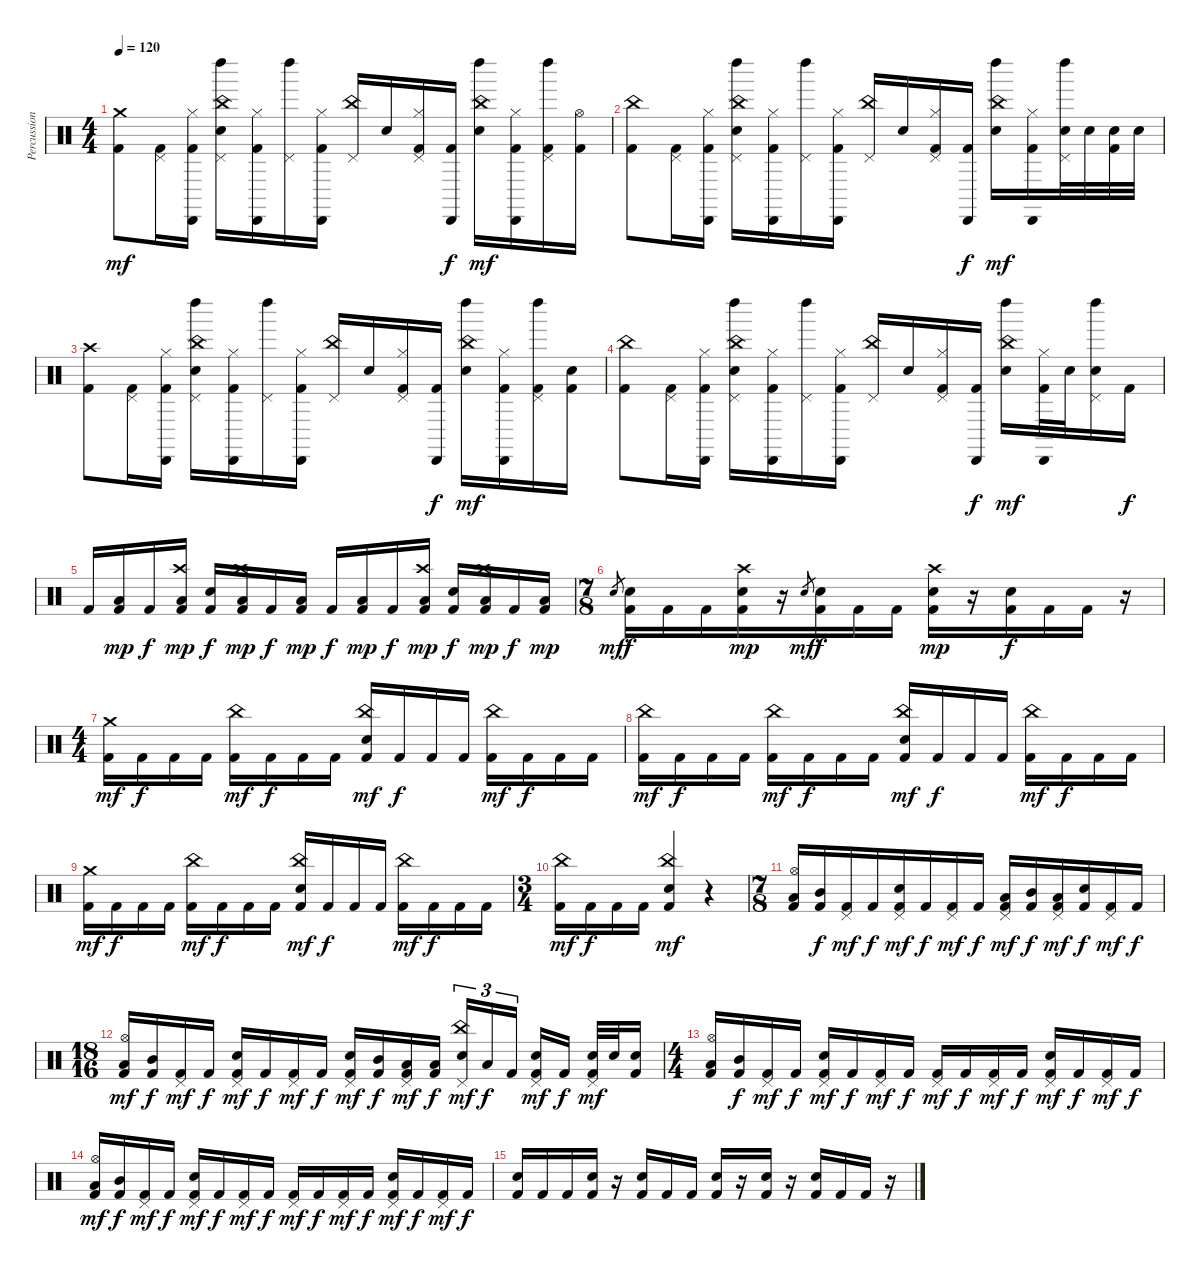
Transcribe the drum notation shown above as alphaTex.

\track ("Percussion" "Percussion") {instrument percussion}
\staff {score}
\articulation defaults
\ts (4 4)
\tempo 120
\clef neutral
\ks c
("Crash medium (hit)" "Kick (hit) 2").8{dy mf} ("Kick (hit) 2" "Pedal Hi-Hat (hit)").16 ("Cabasa (hit)" "Hi-Hat (closed)" "Kick (hit) 2").16 ("China (hit)" "Left Maraca (hit)" "Electric Snare (hit)" "Pedal Hi-Hat (hit)").16 ("Cabasa (hit)" "Hi-Hat (closed)" "Kick (hit) 2").16 ("Left Maraca (hit)" "Pedal Hi-Hat (hit)").16 ("Cabasa (hit)" "Hi-Hat (closed)" "Kick (hit) 2").16 ("China (hit)" "Pedal Hi-Hat (hit)").16 "Electric Snare (hit)".16 ("Hi-Hat (closed)" "Kick (hit) 2" "Pedal Hi-Hat (hit)").16 ("Cabasa (hit)" "Kick (hit) 2").16{dy f} ("China (hit)" "Left Maraca (hit)" "Electric Snare (hit)").16{dy mf} ("Cabasa (hit)" "Hi-Hat (closed)" "Kick (hit) 2").16 ("Left Maraca (hit)" "Kick (hit) 2" "Pedal Hi-Hat (hit)").16 ("Hi-Hat (open)" "Kick (hit) 2").16 |
("China (hit)" "Kick (hit) 2").8 ("Kick (hit) 2" "Pedal Hi-Hat (hit)").16 ("Cabasa (hit)" "Hi-Hat (closed)" "Kick (hit) 2").16 ("China (hit)" "Left Maraca (hit)" "Electric Snare (hit)" "Pedal Hi-Hat (hit)").16 ("Cabasa (hit)" "Hi-Hat (closed)" "Kick (hit) 2").16 ("Left Maraca (hit)" "Pedal Hi-Hat (hit)").16 ("Cabasa (hit)" "Hi-Hat (closed)" "Kick (hit) 2").16 ("China (hit)" "Pedal Hi-Hat (hit)").16 "Electric Snare (hit)".16 ("Hi-Hat (closed)" "Kick (hit) 2" "Pedal Hi-Hat (hit)").16 ("Cabasa (hit)" "Kick (hit) 2").16{dy f} ("China (hit)" "Left Maraca (hit)" "Electric Snare (hit)").16{dy mf} ("Cabasa (hit)" "Hi-Hat (closed)" "Kick (hit) 2").16 ("Left Maraca (hit)" "Electric Snare (hit)" "Pedal Hi-Hat (hit)").32 "Electric Snare (hit)".32 ("Electric Snare (hit)" "Kick (hit) 2").32 "Electric Snare (hit)".32 |
("Crash high (hit)" "Kick (hit) 2").8 ("Kick (hit) 2" "Pedal Hi-Hat (hit)").16 ("Cabasa (hit)" "Hi-Hat (closed)" "Kick (hit) 2").16 ("China (hit)" "Left Maraca (hit)" "Electric Snare (hit)" "Pedal Hi-Hat (hit)").16 ("Cabasa (hit)" "Hi-Hat (closed)" "Kick (hit) 2").16 ("Left Maraca (hit)" "Pedal Hi-Hat (hit)").16 ("Cabasa (hit)" "Hi-Hat (closed)" "Kick (hit) 2").16 ("China (hit)" "Pedal Hi-Hat (hit)").16 "Electric Snare (hit)".16 ("Hi-Hat (closed)" "Kick (hit) 2" "Pedal Hi-Hat (hit)").16 ("Cabasa (hit)" "Kick (hit) 2").16{dy f} ("China (hit)" "Left Maraca (hit)" "Electric Snare (hit)").16{dy mf} ("Cabasa (hit)" "Hi-Hat (closed)" "Kick (hit) 2").16 ("Left Maraca (hit)" "Kick (hit) 2" "Pedal Hi-Hat (hit)").16 ("Electric Snare (hit)" "Kick (hit) 2").16 |
("China (hit)" "Kick (hit) 2").8 ("Kick (hit) 2" "Pedal Hi-Hat (hit)").16 ("Cabasa (hit)" "Hi-Hat (closed)" "Kick (hit) 2").16 ("China (hit)" "Left Maraca (hit)" "Electric Snare (hit)" "Pedal Hi-Hat (hit)").16 ("Cabasa (hit)" "Hi-Hat (closed)" "Kick (hit) 2").16 ("Left Maraca (hit)" "Pedal Hi-Hat (hit)").16 ("Cabasa (hit)" "Hi-Hat (closed)" "Kick (hit) 2").16 ("China (hit)" "Pedal Hi-Hat (hit)").16 "Electric Snare (hit)".16 ("Hi-Hat (closed)" "Kick (hit) 2" "Pedal Hi-Hat (hit)").16 ("Cabasa (hit)" "Kick (hit) 2").16{dy f} ("China (hit)" "Left Maraca (hit)" "Electric Snare (hit)").16{dy mf} ("Cabasa (hit)" "Hi-Hat (closed)" "Kick (hit) 2").32 "Electric Snare (hit)".32 ("Left Maraca (hit)" "Electric Snare (hit)" "Pedal Hi-Hat (hit)").16 "Kick (hit) 2".16{dy f} |
"Kick (hit) 2".16 ("Low Floor Tom (hit)" "Kick (hit) 2").16{dy mp} "Kick (hit) 2".16{dy f} ("Crash high (hit)" "Low Floor Tom (hit)" "Kick (hit) 2").16{dy mp} ("Electric Snare (hit)" "Kick (hit) 2").16{dy f} ("Crash high (hit)" "Low Floor Tom (hit)" "Kick (hit) 2").16{dy mp} "Kick (hit) 2".16{dy f} ("Low Floor Tom (hit)" "Kick (hit) 2").16{dy mp} "Kick (hit) 2".16{dy f} ("Low Floor Tom (hit)" "Kick (hit) 2").16{dy mp} "Kick (hit) 2".16{dy f} ("Crash high (hit)" "Low Floor Tom (hit)" "Kick (hit) 2").16{dy mp} ("Electric Snare (hit)" "Kick (hit) 2").16{dy f} ("Crash high (hit)" "Low Floor Tom (hit)" "Kick (hit) 2").16{dy mp} "Kick (hit) 2".16{dy f} ("Low Floor Tom (hit)" "Kick (hit) 2").16{dy mp} |
\ts (7 8)
"Electric Snare (hit)".8{gr dy mf} ("Electric Snare (hit)" "Kick (hit) 2").16{dy f} "Kick (hit) 2".16 "Kick (hit) 2".16 ("Crash high (hit)" "Electric Snare (hit)" "Kick (hit) 2").16{dy mp} r.16 "Electric Snare (hit)".8{gr dy mf} ("Electric Snare (hit)" "Kick (hit) 2").16{dy f} "Kick (hit) 2".16 "Kick (hit) 2".16 ("Crash high (hit)" "Electric Snare (hit)" "Kick (hit) 2").16{dy mp} r.16 ("Electric Snare (hit)" "Kick (hit) 2").16{dy f} "Kick (hit) 2".16 "Kick (hit) 2".16 r.16 |
\ts (4 4)
("Crash medium (hit)" "Kick (hit) 2").16{dy mf} "Kick (hit) 2".16{dy f} "Kick (hit) 2".16 "Kick (hit) 2".16 ("China (hit)" "Kick (hit) 2").16{dy mf} "Kick (hit) 2".16{dy f} "Kick (hit) 2".16 "Kick (hit) 2".16 ("China (hit)" "Electric Snare (hit)" "Kick (hit) 2").16{dy mf} "Kick (hit) 2".16{dy f} "Kick (hit) 2".16 "Kick (hit) 2".16 ("China (hit)" "Kick (hit) 2").16{dy mf} "Kick (hit) 2".16{dy f} "Kick (hit) 2".16 "Kick (hit) 2".16 |
("China (hit)" "Kick (hit) 2").16{dy mf} "Kick (hit) 2".16{dy f} "Kick (hit) 2".16 "Kick (hit) 2".16 ("China (hit)" "Kick (hit) 2").16{dy mf} "Kick (hit) 2".16{dy f} "Kick (hit) 2".16 "Kick (hit) 2".16 ("China (hit)" "Electric Snare (hit)" "Kick (hit) 2").16{dy mf} "Kick (hit) 2".16{dy f} "Kick (hit) 2".16 "Kick (hit) 2".16 ("China (hit)" "Kick (hit) 2").16{dy mf} "Kick (hit) 2".16{dy f} "Kick (hit) 2".16 "Kick (hit) 2".16 |
("Crash medium (hit)" "Kick (hit) 2").16{dy mf} "Kick (hit) 2".16{dy f} "Kick (hit) 2".16 "Kick (hit) 2".16 ("China (hit)" "Kick (hit) 2").16{dy mf} "Kick (hit) 2".16{dy f} "Kick (hit) 2".16 "Kick (hit) 2".16 ("China (hit)" "Electric Snare (hit)" "Kick (hit) 2").16{dy mf} "Kick (hit) 2".16{dy f} "Kick (hit) 2".16 "Kick (hit) 2".16 ("China (hit)" "Kick (hit) 2").16{dy mf} "Kick (hit) 2".16{dy f} "Kick (hit) 2".16 "Kick (hit) 2".16 |
\ts (3 4)
("China (hit)" "Kick (hit) 2").16{dy mf} "Kick (hit) 2".16{dy f} "Kick (hit) 2".16 "Kick (hit) 2".16 ("China (hit)" "Electric Snare (hit)" "Kick (hit) 2").4{dy mf} r.4 |
\ts (7 8)
("Hi-Hat (open)" "Low Floor Tom (hit)" "Kick (hit) 2").16 ("Mid Tom (hit)" "Kick (hit) 2").16{dy f} ("Kick (hit) 2" "Pedal Hi-Hat (hit)").16{dy mf} "Kick (hit) 2".16{dy f} ("Electric Snare (hit)" "Kick (hit) 2" "Pedal Hi-Hat (hit)").16{dy mf} "Kick (hit) 2".16{dy f} ("Kick (hit) 2" "Pedal Hi-Hat (hit)").16{dy mf} "Kick (hit) 2".16{dy f} ("Low Floor Tom (hit)" "Kick (hit) 2" "Pedal Hi-Hat (hit)").16{dy mf} ("Mid Tom (hit)" "Kick (hit) 2").16{dy f} ("Low Floor Tom (hit)" "Kick (hit) 2" "Pedal Hi-Hat (hit)").16{dy mf} ("Electric Snare (hit)" "Kick (hit) 2").16{dy f} ("Kick (hit) 2" "Pedal Hi-Hat (hit)").16{dy mf} "Kick (hit) 2".16{dy f} |
\ts (18 16)
("Hi-Hat (open)" "Low Floor Tom (hit)" "Kick (hit) 2").16{dy mf} ("Mid Tom (hit)" "Kick (hit) 2").16{dy f} ("Kick (hit) 2" "Pedal Hi-Hat (hit)").16{dy mf} "Kick (hit) 2".16{dy f} ("Electric Snare (hit)" "Kick (hit) 2" "Pedal Hi-Hat (hit)").16{dy mf} "Kick (hit) 2".16{dy f} ("Kick (hit) 2" "Pedal Hi-Hat (hit)").16{dy mf} "Kick (hit) 2".16{dy f} ("Electric Snare (hit)" "Kick (hit) 2" "Pedal Hi-Hat (hit)").16{dy mf} ("Mid Tom (hit)" "Kick (hit) 2").16{dy f} ("Low Floor Tom (hit)" "Kick (hit) 2" "Pedal Hi-Hat (hit)").16{dy mf} ("Low Tom (hit)" "Kick (hit) 2").16{dy f} ("China (hit)" "Electric Snare (hit)" "Pedal Hi-Hat (hit)").16{tu (3 2) dy mf} "Low Tom (hit)".16{tu (3 2) dy f} "Kick (hit) 2".16{tu (3 2) beam splitsecondary} ("Electric Snare (hit)" "Kick (hit) 2" "Pedal Hi-Hat (hit)").16{dy mf} "Kick (hit) 2".16{dy f} ("Electric Snare (hit)" "Kick (hit) 2" "Pedal Hi-Hat (hit)").32{dy mf} "Electric Snare (hit)".32 ("Electric Snare (hit)" "Kick (hit) 2").16 |
\ts (4 4)
("Hi-Hat (open)" "Low Floor Tom (hit)" "Kick (hit) 2").16 ("Mid Tom (hit)" "Kick (hit) 2").16{dy f} ("Kick (hit) 2" "Pedal Hi-Hat (hit)").16{dy mf} "Kick (hit) 2".16{dy f} ("Electric Snare (hit)" "Kick (hit) 2" "Pedal Hi-Hat (hit)").16{dy mf} "Kick (hit) 2".16{dy f} ("Kick (hit) 2" "Pedal Hi-Hat (hit)").16{dy mf} "Kick (hit) 2".16{dy f} ("Kick (hit) 2" "Pedal Hi-Hat (hit)").16{dy mf} "Kick (hit) 2".16{dy f} ("Kick (hit) 2" "Pedal Hi-Hat (hit)").16{dy mf} "Kick (hit) 2".16{dy f} ("Electric Snare (hit)" "Kick (hit) 2" "Pedal Hi-Hat (hit)").16{dy mf} "Kick (hit) 2".16{dy f} ("Kick (hit) 2" "Pedal Hi-Hat (hit)").16{dy mf} "Kick (hit) 2".16{dy f} |
("Hi-Hat (open)" "Low Floor Tom (hit)" "Kick (hit) 2").16{dy mf} ("Mid Tom (hit)" "Kick (hit) 2").16{dy f} ("Kick (hit) 2" "Pedal Hi-Hat (hit)").16{dy mf} "Kick (hit) 2".16{dy f} ("Electric Snare (hit)" "Kick (hit) 2" "Pedal Hi-Hat (hit)").16{dy mf} "Kick (hit) 2".16{dy f} ("Kick (hit) 2" "Pedal Hi-Hat (hit)").16{dy mf} "Kick (hit) 2".16{dy f} ("Kick (hit) 2" "Pedal Hi-Hat (hit)").16{dy mf} "Kick (hit) 2".16{dy f} ("Kick (hit) 2" "Pedal Hi-Hat (hit)").16{dy mf} "Kick (hit) 2".16{dy f} ("Electric Snare (hit)" "Kick (hit) 2" "Pedal Hi-Hat (hit)").16{dy mf} "Kick (hit) 2".16{dy f} ("Kick (hit) 2" "Pedal Hi-Hat (hit)").16{dy mf} "Kick (hit) 2".16{dy f} |
("Electric Snare (hit)" "Kick (hit) 2").16 "Kick (hit) 2".16 "Kick (hit) 2".16 ("Electric Snare (hit)" "Kick (hit) 2").16 r.16 ("Electric Snare (hit)" "Kick (hit) 2").16 "Kick (hit) 2".16 "Kick (hit) 2".16 ("Electric Snare (hit)" "Kick (hit) 2").16 r.16 ("Electric Snare (hit)" "Kick (hit) 2").16 r.16 ("Electric Snare (hit)" "Kick (hit) 2").16 "Kick (hit) 2".16 "Kick (hit) 2".16 r.16
